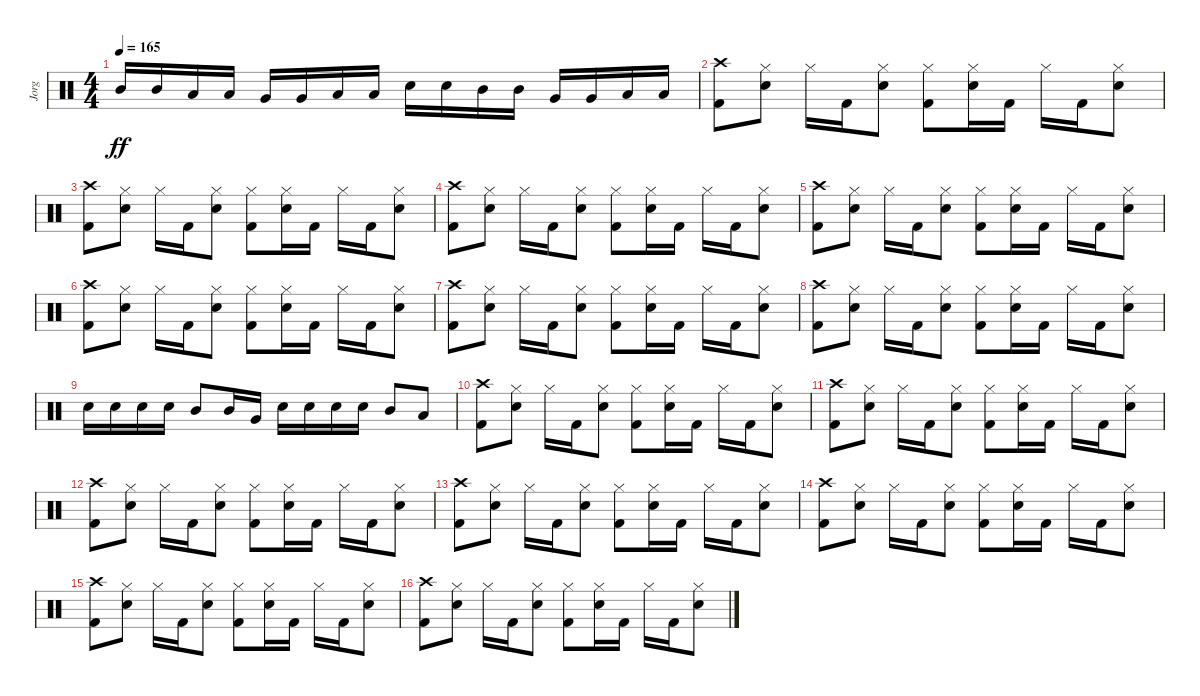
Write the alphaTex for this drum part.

\track ("Jorg" "Jorg") {instrument percussion}
\staff {score}
\articulation defaults
\ts (4 4)
\tempo 165
\clef neutral
\ks c "Mid Tom (hit)".16{dy ff} "Mid Tom (hit)".16 "Low Tom (hit)".16 "Low Tom (hit)".16 "Very Low Tom (hit)".16 "Very Low Tom (hit)".16 "Low Floor Tom (hit)".16 "Low Floor Tom (hit)".16 "Electric Snare (hit)".16 "Electric Snare (hit)".16 "Mid Tom (hit)".16 "Mid Tom (hit)".16 "Very Low Tom (hit)".16 "Very Low Tom (hit)".16 "Low Floor Tom (hit)".16 "Low Floor Tom (hit)".16
|
("Kick (hit) 2" "Crash high (hit)").8 ("Snare (hit) 2" "Hi-Hat (closed)").8 "Hi-Hat (closed)".16 "Kick (hit) 2".16 ("Snare (hit) 2" "Hi-Hat (closed)").8 ("Kick (hit) 2" "Hi-Hat (closed)").8 ("Snare (hit) 2" "Hi-Hat (closed)").16 "Kick (hit) 2".16 "Hi-Hat (closed)".16 "Kick (hit) 2".16 ("Snare (hit) 2" "Hi-Hat (closed)").8 |
("Kick (hit) 2" "Crash high (hit)").8 ("Snare (hit) 2" "Hi-Hat (closed)").8 "Hi-Hat (closed)".16 "Kick (hit) 2".16 ("Snare (hit) 2" "Hi-Hat (closed)").8 ("Kick (hit) 2" "Hi-Hat (closed)").8 ("Snare (hit) 2" "Hi-Hat (closed)").16 "Kick (hit) 2".16 "Hi-Hat (closed)".16 "Kick (hit) 2".16 ("Snare (hit) 2" "Hi-Hat (closed)").8 |
("Kick (hit) 2" "Crash high (hit)").8 ("Snare (hit) 2" "Hi-Hat (closed)").8 "Hi-Hat (closed)".16 "Kick (hit) 2".16 ("Snare (hit) 2" "Hi-Hat (closed)").8 ("Kick (hit) 2" "Hi-Hat (closed)").8 ("Snare (hit) 2" "Hi-Hat (closed)").16 "Kick (hit) 2".16 "Hi-Hat (closed)".16 "Kick (hit) 2".16 ("Snare (hit) 2" "Hi-Hat (closed)").8 |
("Kick (hit) 2" "Crash high (hit)").8 ("Snare (hit) 2" "Hi-Hat (closed)").8 "Hi-Hat (closed)".16 "Kick (hit) 2".16 ("Snare (hit) 2" "Hi-Hat (closed)").8 ("Kick (hit) 2" "Hi-Hat (closed)").8 ("Snare (hit) 2" "Hi-Hat (closed)").16 "Kick (hit) 2".16 "Hi-Hat (closed)".16 "Kick (hit) 2".16 ("Snare (hit) 2" "Hi-Hat (closed)").8 |
("Kick (hit) 2" "Crash high (hit)").8 ("Snare (hit) 2" "Hi-Hat (closed)").8 "Hi-Hat (closed)".16 "Kick (hit) 2".16 ("Snare (hit) 2" "Hi-Hat (closed)").8 ("Kick (hit) 2" "Hi-Hat (closed)").8 ("Snare (hit) 2" "Hi-Hat (closed)").16 "Kick (hit) 2".16 "Hi-Hat (closed)".16 "Kick (hit) 2".16 ("Snare (hit) 2" "Hi-Hat (closed)").8 |
("Kick (hit) 2" "Crash high (hit)").8 ("Snare (hit) 2" "Hi-Hat (closed)").8 "Hi-Hat (closed)".16 "Kick (hit) 2".16 ("Snare (hit) 2" "Hi-Hat (closed)").8 ("Kick (hit) 2" "Hi-Hat (closed)").8 ("Snare (hit) 2" "Hi-Hat (closed)").16 "Kick (hit) 2".16 "Hi-Hat (closed)".16 "Kick (hit) 2".16 ("Snare (hit) 2" "Hi-Hat (closed)").8 |
("Kick (hit) 2" "Crash high (hit)").8 ("Snare (hit) 2" "Hi-Hat (closed)").8 "Hi-Hat (closed)".16 "Kick (hit) 2".16 ("Snare (hit) 2" "Hi-Hat (closed)").8 ("Kick (hit) 2" "Hi-Hat (closed)").8 ("Snare (hit) 2" "Hi-Hat (closed)").16 "Kick (hit) 2".16 "Hi-Hat (closed)".16 "Kick (hit) 2".16 ("Snare (hit) 2" "Hi-Hat (closed)").8 |
"Electric Snare (hit)".16 "Electric Snare (hit)".16 "Electric Snare (hit)".16 "Electric Snare (hit)".16 "Mid Tom (hit)".8 "Mid Tom (hit)".16 "Very Low Tom (hit)".16 "Electric Snare (hit)".16 "Electric Snare (hit)".16 "Electric Snare (hit)".16 "Electric Snare (hit)".16 "Mid Tom (hit)".8 "Low Tom (hit)".8 |
("Kick (hit) 2" "Crash high (hit)").8 ("Snare (hit) 2" "Hi-Hat (closed)").8 "Hi-Hat (closed)".16 "Kick (hit) 2".16 ("Snare (hit) 2" "Hi-Hat (closed)").8 ("Kick (hit) 2" "Hi-Hat (closed)").8 ("Snare (hit) 2" "Hi-Hat (closed)").16 "Kick (hit) 2".16 "Hi-Hat (closed)".16 "Kick (hit) 2".16 ("Snare (hit) 2" "Hi-Hat (closed)").8 |
("Kick (hit) 2" "Crash high (hit)").8 ("Snare (hit) 2" "Hi-Hat (closed)").8 "Hi-Hat (closed)".16 "Kick (hit) 2".16 ("Snare (hit) 2" "Hi-Hat (closed)").8 ("Kick (hit) 2" "Hi-Hat (closed)").8 ("Snare (hit) 2" "Hi-Hat (closed)").16 "Kick (hit) 2".16 "Hi-Hat (closed)".16 "Kick (hit) 2".16 ("Snare (hit) 2" "Hi-Hat (closed)").8 |
("Kick (hit) 2" "Crash high (hit)").8 ("Snare (hit) 2" "Hi-Hat (closed)").8 "Hi-Hat (closed)".16 "Kick (hit) 2".16 ("Snare (hit) 2" "Hi-Hat (closed)").8 ("Kick (hit) 2" "Hi-Hat (closed)").8 ("Snare (hit) 2" "Hi-Hat (closed)").16 "Kick (hit) 2".16 "Hi-Hat (closed)".16 "Kick (hit) 2".16 ("Snare (hit) 2" "Hi-Hat (closed)").8 |
("Kick (hit) 2" "Crash high (hit)").8 ("Snare (hit) 2" "Hi-Hat (closed)").8 "Hi-Hat (closed)".16 "Kick (hit) 2".16 ("Snare (hit) 2" "Hi-Hat (closed)").8 ("Kick (hit) 2" "Hi-Hat (closed)").8 ("Snare (hit) 2" "Hi-Hat (closed)").16 "Kick (hit) 2".16 "Hi-Hat (closed)".16 "Kick (hit) 2".16 ("Snare (hit) 2" "Hi-Hat (closed)").8 |
("Kick (hit) 2" "Crash high (hit)").8 ("Snare (hit) 2" "Hi-Hat (closed)").8 "Hi-Hat (closed)".16 "Kick (hit) 2".16 ("Snare (hit) 2" "Hi-Hat (closed)").8 ("Kick (hit) 2" "Hi-Hat (closed)").8 ("Snare (hit) 2" "Hi-Hat (closed)").16 "Kick (hit) 2".16 "Hi-Hat (closed)".16 "Kick (hit) 2".16 ("Snare (hit) 2" "Hi-Hat (closed)").8 |
("Kick (hit) 2" "Crash high (hit)").8 ("Snare (hit) 2" "Hi-Hat (closed)").8 "Hi-Hat (closed)".16 "Kick (hit) 2".16 ("Snare (hit) 2" "Hi-Hat (closed)").8 ("Kick (hit) 2" "Hi-Hat (closed)").8 ("Snare (hit) 2" "Hi-Hat (closed)").16 "Kick (hit) 2".16 "Hi-Hat (closed)".16 "Kick (hit) 2".16 ("Snare (hit) 2" "Hi-Hat (closed)").8 |
("Kick (hit) 2" "Crash high (hit)").8 ("Snare (hit) 2" "Hi-Hat (closed)").8 "Hi-Hat (closed)".16 "Kick (hit) 2".16 ("Snare (hit) 2" "Hi-Hat (closed)").8 ("Kick (hit) 2" "Hi-Hat (closed)").8 ("Snare (hit) 2" "Hi-Hat (closed)").16 "Kick (hit) 2".16 "Hi-Hat (closed)".16 "Kick (hit) 2".16 ("Snare (hit) 2" "Hi-Hat (closed)").8
